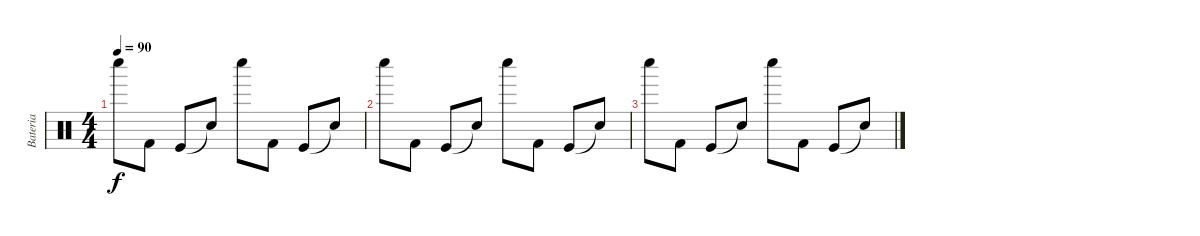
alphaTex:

\track ("Bateria" "Bateria") {instrument percussion}
\staff {score}
\articulation defaults
\ts (4 4)
\tempo 90
\clef neutral
\ks c "Whistle low (hit)".8{dy f volume 0} "Kick (hit) 2".8 "Kick (hit)".8 "Snare (hit)"{t}.8 "Whistle low (hit)".8 "Kick (hit) 2".8 "Kick (hit)".8 "Snare (hit)"{t}.8
|
"Whistle low (hit)".8 "Kick (hit) 2".8 "Kick (hit)".8 "Snare (hit)"{t}.8 "Whistle low (hit)".8 "Kick (hit) 2".8 "Kick (hit)".8 "Snare (hit)"{t}.8 |
"Whistle low (hit)".8 "Kick (hit) 2".8 "Kick (hit)".8 "Snare (hit)"{t}.8 "Whistle low (hit)".8 "Kick (hit) 2".8 "Kick (hit)".8 "Snare (hit)"{t}.8
